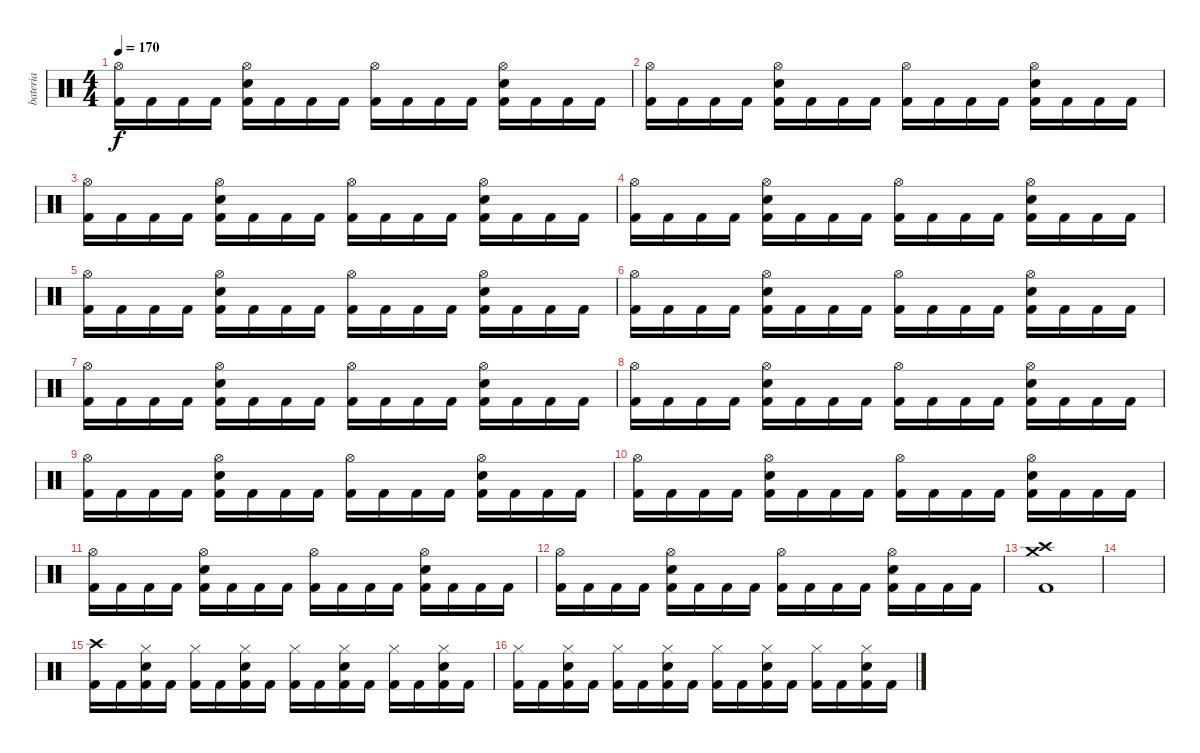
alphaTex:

\track ("bateria" "bateria") {instrument percussion}
\staff {score}
\articulation defaults
\ts (4 4)
\tempo 170
\clef neutral
\ks c
("Hi-Hat (open)" "Kick (hit) 2").16{dy f} "Kick (hit) 2".16 "Kick (hit) 2".16 "Kick (hit) 2".16 ("Hi-Hat (open)" "Snare (hit) 2" "Kick (hit) 2").16 "Kick (hit) 2".16 "Kick (hit) 2".16 "Kick (hit) 2".16 ("Hi-Hat (open)" "Kick (hit) 2").16 "Kick (hit) 2".16 "Kick (hit) 2".16 "Kick (hit) 2".16 ("Hi-Hat (open)" "Snare (hit) 2" "Kick (hit) 2").16 "Kick (hit) 2".16 "Kick (hit) 2".16 "Kick (hit) 2".16 |
("Hi-Hat (open)" "Kick (hit) 2").16 "Kick (hit) 2".16 "Kick (hit) 2".16 "Kick (hit) 2".16 ("Hi-Hat (open)" "Snare (hit) 2" "Kick (hit) 2").16 "Kick (hit) 2".16 "Kick (hit) 2".16 "Kick (hit) 2".16 ("Hi-Hat (open)" "Kick (hit) 2").16 "Kick (hit) 2".16 "Kick (hit) 2".16 "Kick (hit) 2".16 ("Hi-Hat (open)" "Snare (hit) 2" "Kick (hit) 2").16 "Kick (hit) 2".16 "Kick (hit) 2".16 "Kick (hit) 2".16 |
("Hi-Hat (open)" "Kick (hit) 2").16 "Kick (hit) 2".16 "Kick (hit) 2".16 "Kick (hit) 2".16 ("Hi-Hat (open)" "Snare (hit) 2" "Kick (hit) 2").16 "Kick (hit) 2".16 "Kick (hit) 2".16 "Kick (hit) 2".16 ("Hi-Hat (open)" "Kick (hit) 2").16 "Kick (hit) 2".16 "Kick (hit) 2".16 "Kick (hit) 2".16 ("Hi-Hat (open)" "Snare (hit) 2" "Kick (hit) 2").16 "Kick (hit) 2".16 "Kick (hit) 2".16 "Kick (hit) 2".16 |
("Hi-Hat (open)" "Kick (hit) 2").16 "Kick (hit) 2".16 "Kick (hit) 2".16 "Kick (hit) 2".16 ("Hi-Hat (open)" "Snare (hit) 2" "Kick (hit) 2").16 "Kick (hit) 2".16 "Kick (hit) 2".16 "Kick (hit) 2".16 ("Hi-Hat (open)" "Kick (hit) 2").16 "Kick (hit) 2".16 "Kick (hit) 2".16 "Kick (hit) 2".16 ("Hi-Hat (open)" "Snare (hit) 2" "Kick (hit) 2").16 "Kick (hit) 2".16 "Kick (hit) 2".16 "Kick (hit) 2".16 |
("Hi-Hat (open)" "Kick (hit) 2").16 "Kick (hit) 2".16 "Kick (hit) 2".16 "Kick (hit) 2".16 ("Hi-Hat (open)" "Snare (hit) 2" "Kick (hit) 2").16 "Kick (hit) 2".16 "Kick (hit) 2".16 "Kick (hit) 2".16 ("Hi-Hat (open)" "Kick (hit) 2").16 "Kick (hit) 2".16 "Kick (hit) 2".16 "Kick (hit) 2".16 ("Hi-Hat (open)" "Snare (hit) 2" "Kick (hit) 2").16 "Kick (hit) 2".16 "Kick (hit) 2".16 "Kick (hit) 2".16 |
("Hi-Hat (open)" "Kick (hit) 2").16 "Kick (hit) 2".16 "Kick (hit) 2".16 "Kick (hit) 2".16 ("Hi-Hat (open)" "Snare (hit) 2" "Kick (hit) 2").16 "Kick (hit) 2".16 "Kick (hit) 2".16 "Kick (hit) 2".16 ("Hi-Hat (open)" "Kick (hit) 2").16 "Kick (hit) 2".16 "Kick (hit) 2".16 "Kick (hit) 2".16 ("Hi-Hat (open)" "Snare (hit) 2" "Kick (hit) 2").16 "Kick (hit) 2".16 "Kick (hit) 2".16 "Kick (hit) 2".16 |
("Hi-Hat (open)" "Kick (hit) 2").16 "Kick (hit) 2".16 "Kick (hit) 2".16 "Kick (hit) 2".16 ("Hi-Hat (open)" "Snare (hit) 2" "Kick (hit) 2").16 "Kick (hit) 2".16 "Kick (hit) 2".16 "Kick (hit) 2".16 ("Hi-Hat (open)" "Kick (hit) 2").16 "Kick (hit) 2".16 "Kick (hit) 2".16 "Kick (hit) 2".16 ("Hi-Hat (open)" "Snare (hit) 2" "Kick (hit) 2").16 "Kick (hit) 2".16 "Kick (hit) 2".16 "Kick (hit) 2".16 |
("Hi-Hat (open)" "Kick (hit) 2").16 "Kick (hit) 2".16 "Kick (hit) 2".16 "Kick (hit) 2".16 ("Hi-Hat (open)" "Snare (hit) 2" "Kick (hit) 2").16 "Kick (hit) 2".16 "Kick (hit) 2".16 "Kick (hit) 2".16 ("Hi-Hat (open)" "Kick (hit) 2").16 "Kick (hit) 2".16 "Kick (hit) 2".16 "Kick (hit) 2".16 ("Hi-Hat (open)" "Snare (hit) 2" "Kick (hit) 2").16 "Kick (hit) 2".16 "Kick (hit) 2".16 "Kick (hit) 2".16 |
("Hi-Hat (open)" "Kick (hit) 2").16 "Kick (hit) 2".16 "Kick (hit) 2".16 "Kick (hit) 2".16 ("Hi-Hat (open)" "Snare (hit) 2" "Kick (hit) 2").16 "Kick (hit) 2".16 "Kick (hit) 2".16 "Kick (hit) 2".16 ("Hi-Hat (open)" "Kick (hit) 2").16 "Kick (hit) 2".16 "Kick (hit) 2".16 "Kick (hit) 2".16 ("Hi-Hat (open)" "Snare (hit) 2" "Kick (hit) 2").16 "Kick (hit) 2".16 "Kick (hit) 2".16 "Kick (hit) 2".16 |
("Hi-Hat (open)" "Kick (hit) 2").16 "Kick (hit) 2".16 "Kick (hit) 2".16 "Kick (hit) 2".16 ("Hi-Hat (open)" "Snare (hit) 2" "Kick (hit) 2").16 "Kick (hit) 2".16 "Kick (hit) 2".16 "Kick (hit) 2".16 ("Hi-Hat (open)" "Kick (hit) 2").16 "Kick (hit) 2".16 "Kick (hit) 2".16 "Kick (hit) 2".16 ("Hi-Hat (open)" "Snare (hit) 2" "Kick (hit) 2").16 "Kick (hit) 2".16 "Kick (hit) 2".16 "Kick (hit) 2".16 |
("Hi-Hat (open)" "Kick (hit) 2").16 "Kick (hit) 2".16 "Kick (hit) 2".16 "Kick (hit) 2".16 ("Hi-Hat (open)" "Snare (hit) 2" "Kick (hit) 2").16 "Kick (hit) 2".16 "Kick (hit) 2".16 "Kick (hit) 2".16 ("Hi-Hat (open)" "Kick (hit) 2").16 "Kick (hit) 2".16 "Kick (hit) 2".16 "Kick (hit) 2".16 ("Hi-Hat (open)" "Snare (hit) 2" "Kick (hit) 2").16 "Kick (hit) 2".16 "Kick (hit) 2".16 "Kick (hit) 2".16 |
("Hi-Hat (open)" "Kick (hit) 2").16 "Kick (hit) 2".16 "Kick (hit) 2".16 "Kick (hit) 2".16 ("Hi-Hat (open)" "Snare (hit) 2" "Kick (hit) 2").16 "Kick (hit) 2".16 "Kick (hit) 2".16 "Kick (hit) 2".16 ("Hi-Hat (open)" "Kick (hit) 2").16 "Kick (hit) 2".16 "Kick (hit) 2".16 "Kick (hit) 2".16 ("Hi-Hat (open)" "Snare (hit) 2" "Kick (hit) 2").16 "Kick (hit) 2".16 "Kick (hit) 2".16 "Kick (hit) 2".16 |
("Crash high (hit)" "Crash medium (hit)" "Kick (hit) 2").1 |
|
("Crash high (hit)" "Kick (hit) 2").16 "Kick (hit) 2".16 ("Hi-Hat (closed)" "Snare (hit) 2" "Kick (hit) 2").16 "Kick (hit) 2".16 ("Hi-Hat (closed)" "Kick (hit) 2").16 "Kick (hit) 2".16 ("Hi-Hat (closed)" "Snare (hit) 2" "Kick (hit) 2").16 "Kick (hit) 2".16 ("Hi-Hat (closed)" "Kick (hit) 2").16 "Kick (hit) 2".16 ("Hi-Hat (closed)" "Snare (hit) 2" "Kick (hit) 2").16 "Kick (hit) 2".16 ("Hi-Hat (closed)" "Kick (hit) 2").16 "Kick (hit) 2".16 ("Hi-Hat (closed)" "Snare (hit) 2" "Kick (hit) 2").16 "Kick (hit) 2".16 |
("Hi-Hat (closed)" "Kick (hit) 2").16 "Kick (hit) 2".16 ("Hi-Hat (closed)" "Snare (hit) 2" "Kick (hit) 2").16 "Kick (hit) 2".16 ("Hi-Hat (closed)" "Kick (hit) 2").16 "Kick (hit) 2".16 ("Hi-Hat (closed)" "Snare (hit) 2" "Kick (hit) 2").16 "Kick (hit) 2".16 ("Hi-Hat (closed)" "Kick (hit) 2").16 "Kick (hit) 2".16 ("Hi-Hat (closed)" "Snare (hit) 2" "Kick (hit) 2").16 "Kick (hit) 2".16 ("Hi-Hat (closed)" "Kick (hit) 2").16 "Kick (hit) 2".16 ("Hi-Hat (closed)" "Snare (hit) 2" "Kick (hit) 2").16 "Kick (hit) 2".16
